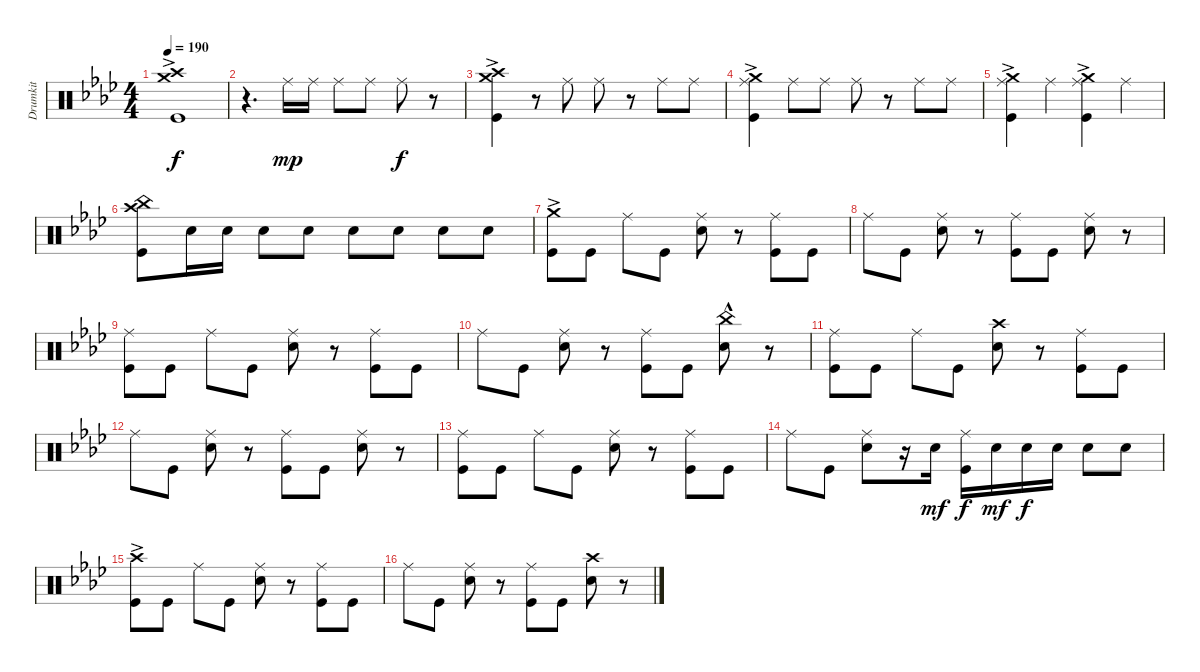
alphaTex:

\track ("Drumkit" "Drumkit") {instrument percussion}
\staff {score}
\articulation defaults
\ts (4 4)
\tempo 190
\clef neutral
\ks ab
("Kick (hit)" "Crash medium (hit)"{ac} "Crash high (hit)"{ac}).1{dy f} |
r.4{d} "Ride (middle)".16{dy mp} "Ride (middle)".16 "Ride (middle)".8 "Ride (middle)".8 "Ride (middle)".8{dy f} r.8 |
("Kick (hit)" "Crash medium (hit)"{ac} "Crash high (hit)"{ac}).4 r.8 "Ride (middle)".8 "Ride (middle)".8 r.8 "Ride (middle)".8 "Ride (middle)".8 |
("Kick (hit)" "Crash medium (hit)"{ac} "Ride (middle)").4 "Ride (middle)".8 "Ride (middle)".8 "Ride (middle)".8 r.8 "Ride (middle)".8 "Ride (middle)".8 |
("Kick (hit)" "Crash medium (hit)"{ac} "Ride (middle)").4 "Ride (middle)".4 ("Kick (hit)" "Crash medium (hit)"{ac} "Ride (middle)").4 "Ride (middle)".4 |
("Kick (hit)" "China (hit)" "Crash high (hit)").8 "Snare (hit) 2".16 "Snare (hit) 2".16 "Snare (hit) 2".8 "Snare (hit) 2".8 "Snare (hit) 2".8 "Snare (hit) 2".8 "Snare (hit) 2".8 "Snare (hit) 2".8 |
("Kick (hit)" "Crash medium (hit)"{ac}).8 "Kick (hit)".8 "Ride (middle)".8 "Kick (hit)".8 ("Snare (hit) 2" "Ride (middle)").8 r.8 ("Kick (hit)" "Ride (middle)").8 "Kick (hit)".8 |
"Ride (middle)".8 "Kick (hit)".8 ("Snare (hit) 2" "Ride (middle)").8 r.8 ("Kick (hit)" "Ride (middle)").8 "Kick (hit)".8 ("Snare (hit) 2" "Ride (middle)").8 r.8 |
("Kick (hit)" "Ride (middle)").8 "Kick (hit)".8 "Ride (middle)".8 "Kick (hit)".8 ("Snare (hit) 2" "Ride (middle)").8 r.8 ("Kick (hit)" "Ride (middle)").8 "Kick (hit)".8 |
"Ride (middle)".8 "Kick (hit)".8 ("Snare (hit) 2" "Ride (middle)").8 r.8 ("Kick (hit)" "Ride (middle)").8 "Kick (hit)".8 ("Snare (hit) 2" "China (hit)"{hac}).8 r.8 |
("Kick (hit)" "Ride (middle)").8 "Kick (hit)".8 "Ride (middle)".8 "Kick (hit)".8 ("Snare (hit) 2" "Crash high (hit)").8 r.8 ("Kick (hit)" "Ride (middle)").8 "Kick (hit)".8 |
"Ride (middle)".8 "Kick (hit)".8 ("Snare (hit) 2" "Ride (middle)").8 r.8 ("Kick (hit)" "Ride (middle)").8 "Kick (hit)".8 ("Snare (hit) 2" "Ride (middle)").8 r.8 |
("Kick (hit)" "Ride (middle)").8 "Kick (hit)".8 "Ride (middle)".8 "Kick (hit)".8 ("Snare (hit) 2" "Ride (middle)").8 r.8 ("Kick (hit)" "Ride (middle)").8 "Kick (hit)".8 |
"Ride (middle)".8 "Kick (hit)".8 ("Snare (hit) 2" "Ride (middle)").8 r.16 "Snare (hit) 2".16{dy mf} ("Ride (middle)" "Kick (hit)").16{dy f} "Snare (hit) 2".16{dy mf} "Snare (hit) 2".16{dy f} "Snare (hit) 2".16 "Snare (hit) 2".8 "Snare (hit) 2".8 |
("Kick (hit)" "Crash high (hit)"{ac}).8 "Kick (hit)".8 "Ride (middle)".8 "Kick (hit)".8 ("Snare (hit) 2" "Ride (middle)").8 r.8 ("Kick (hit)" "Ride (middle)").8 "Kick (hit)".8 |
"Ride (middle)".8 "Kick (hit)".8 ("Snare (hit) 2" "Ride (middle)").8 r.8 ("Kick (hit)" "Ride (middle)").8 "Kick (hit)".8 ("Snare (hit) 2" "Crash high (hit)").8 r.8
